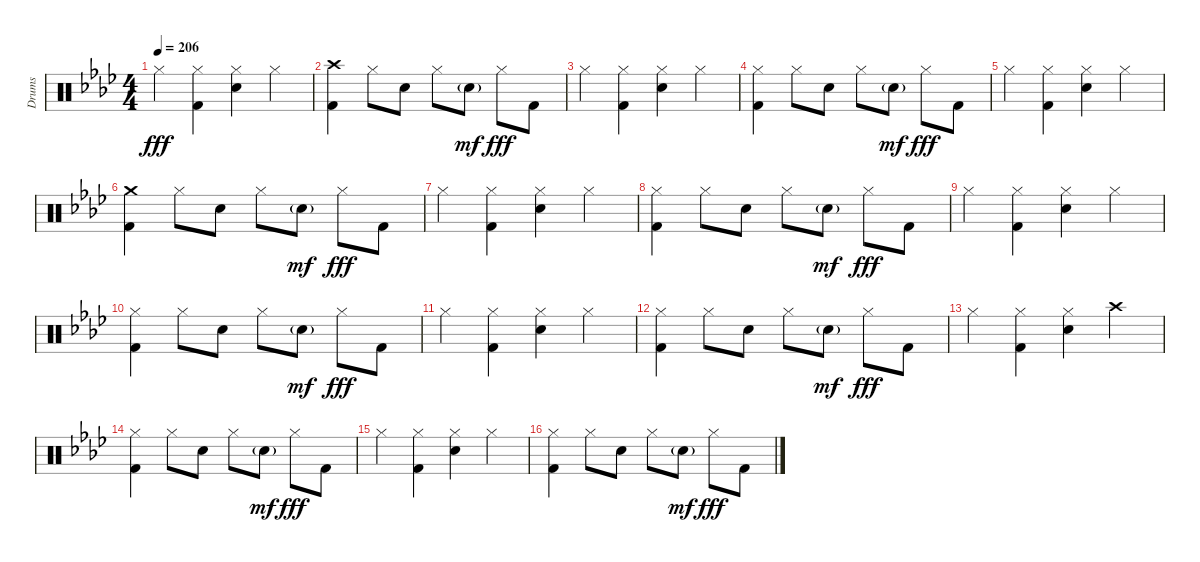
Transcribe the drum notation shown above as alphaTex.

\track ("Drums" "Drums") {instrument percussion}
\staff {score}
\articulation defaults
\ts (4 4)
\tempo 206
\clef neutral
\ks ab "Hi-Hat (closed)".4{dy fff}
("Hi-Hat (closed)" "Kick (hit) 2").4 ("Hi-Hat (closed)" "Electric Snare (hit)").4 "Hi-Hat (closed)".4 |
("Crash high (hit)" "Kick (hit) 2").4 "Hi-Hat (closed)".8 "Electric Snare (hit)".8 "Hi-Hat (closed)".8 "Electric Snare (hit)"{g}.8{dy mf} "Hi-Hat (closed)".8{dy fff} "Kick (hit) 2".8 |
"Hi-Hat (closed)".4 ("Hi-Hat (closed)" "Kick (hit) 2").4 ("Hi-Hat (closed)" "Electric Snare (hit)").4 "Hi-Hat (closed)".4 |
("Hi-Hat (closed)" "Kick (hit) 2").4 "Hi-Hat (closed)".8 "Electric Snare (hit)".8 "Hi-Hat (closed)".8 "Electric Snare (hit)"{g}.8{dy mf} "Hi-Hat (closed)".8{dy fff} "Kick (hit) 2".8 |
"Hi-Hat (closed)".4 ("Hi-Hat (closed)" "Kick (hit) 2").4 ("Hi-Hat (closed)" "Electric Snare (hit)").4 "Hi-Hat (closed)".4 |
("Crash medium (hit)" "Kick (hit) 2").4 "Hi-Hat (closed)".8 "Electric Snare (hit)".8 "Hi-Hat (closed)".8 "Electric Snare (hit)"{g}.8{dy mf} "Hi-Hat (closed)".8{dy fff} "Kick (hit) 2".8 |
"Hi-Hat (closed)".4 ("Hi-Hat (closed)" "Kick (hit) 2").4 ("Hi-Hat (closed)" "Electric Snare (hit)").4 "Hi-Hat (closed)".4 |
("Hi-Hat (closed)" "Kick (hit) 2").4 "Hi-Hat (closed)".8 "Electric Snare (hit)".8 "Hi-Hat (closed)".8 "Electric Snare (hit)"{g}.8{dy mf} "Hi-Hat (closed)".8{dy fff} "Kick (hit) 2".8 |
"Hi-Hat (closed)".4 ("Hi-Hat (closed)" "Kick (hit) 2").4 ("Hi-Hat (closed)" "Electric Snare (hit)").4 "Hi-Hat (closed)".4 |
("Hi-Hat (closed)" "Kick (hit) 2").4 "Hi-Hat (closed)".8 "Electric Snare (hit)".8 "Hi-Hat (closed)".8 "Electric Snare (hit)"{g}.8{dy mf} "Hi-Hat (closed)".8{dy fff} "Kick (hit) 2".8 |
"Hi-Hat (closed)".4 ("Hi-Hat (closed)" "Kick (hit) 2").4 ("Hi-Hat (closed)" "Electric Snare (hit)").4 "Hi-Hat (closed)".4 |
("Hi-Hat (closed)" "Kick (hit) 2").4 "Hi-Hat (closed)".8 "Electric Snare (hit)".8 "Hi-Hat (closed)".8 "Electric Snare (hit)"{g}.8{dy mf} "Hi-Hat (closed)".8{dy fff} "Kick (hit) 2".8 |
"Hi-Hat (closed)".4 ("Hi-Hat (closed)" "Kick (hit) 2").4 ("Hi-Hat (closed)" "Electric Snare (hit)").4 "Crash high (hit)".4 |
("Hi-Hat (closed)" "Kick (hit) 2").4 "Hi-Hat (closed)".8 "Electric Snare (hit)".8 "Hi-Hat (closed)".8 "Electric Snare (hit)"{g}.8{dy mf} "Hi-Hat (closed)".8{dy fff} "Kick (hit) 2".8 |
"Hi-Hat (closed)".4 ("Hi-Hat (closed)" "Kick (hit) 2").4 ("Hi-Hat (closed)" "Electric Snare (hit)").4 "Hi-Hat (closed)".4 |
("Hi-Hat (closed)" "Kick (hit) 2").4 "Hi-Hat (closed)".8 "Electric Snare (hit)".8 "Hi-Hat (closed)".8 "Electric Snare (hit)"{g}.8{dy mf} "Hi-Hat (closed)".8{dy fff} "Kick (hit) 2".8
